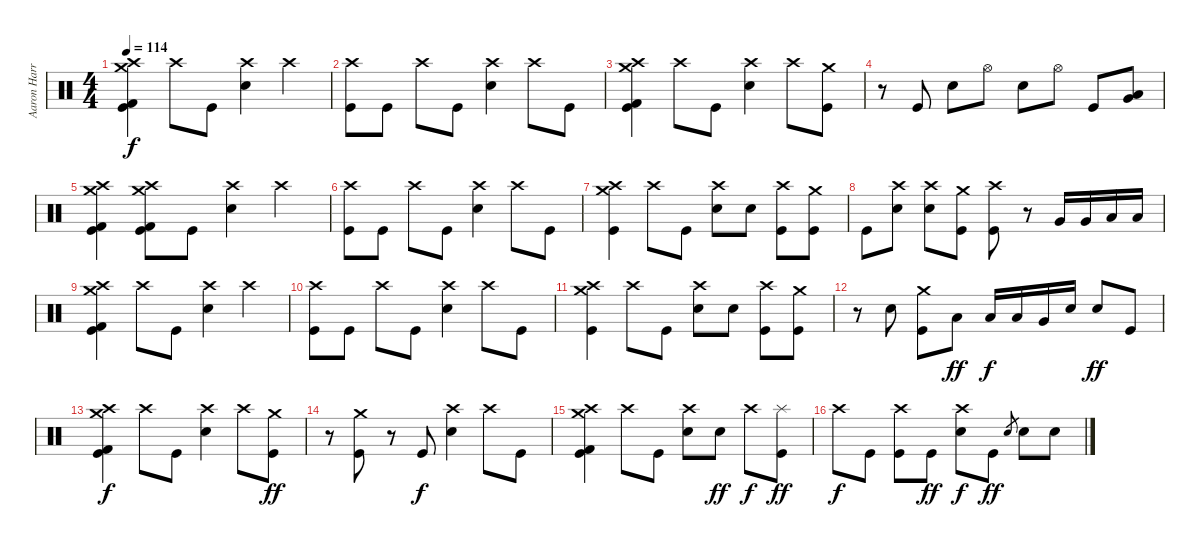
\track ("Aaron Harris" "Aaron Harr") {instrument percussion}
\staff {score}
\articulation defaults
\ts (4 4)
\tempo 114
\clef neutral
\ks c
("Crash medium (hit)" "Crash high (hit)" "Kick (hit) 2" "Kick (hit)").4{dy f} "Crash high (hit)".8 "Kick (hit)".8 ("Crash high (hit)" "Electric Snare (hit)").4 "Crash high (hit)".4 |
("Crash high (hit)" "Kick (hit)").8 "Kick (hit)".8 "Crash high (hit)".8 "Kick (hit)".8 ("Crash high (hit)" "Electric Snare (hit)").4 "Crash high (hit)".8 "Kick (hit)".8 |
("Crash medium (hit)" "Crash high (hit)" "Kick (hit) 2" "Kick (hit)").4 "Crash high (hit)".8 "Kick (hit)".8 ("Crash high (hit)" "Electric Snare (hit)").4 "Crash high (hit)".8 ("Crash medium (hit)" "Kick (hit)").8 |
r.8 "Kick (hit)".8 "Electric Snare (hit)".8 "Hi-Hat (open)".8 "Electric Snare (hit)".8 "Hi-Hat (open)".8 "Kick (hit)".8 ("Very Low Tom (hit)" "Low Floor Tom (hit)").8 |
("Crash medium (hit)" "Crash high (hit)" "Kick (hit) 2" "Kick (hit)").4 ("Crash medium (hit)" "Crash high (hit)" "Kick (hit) 2" "Kick (hit)").8 "Kick (hit)".8 ("Crash high (hit)" "Electric Snare (hit)").4 "Crash high (hit)".4 |
("Crash high (hit)" "Kick (hit)").8 "Kick (hit)".8 "Crash high (hit)".8 "Kick (hit)".8 ("Crash high (hit)" "Electric Snare (hit)").4 "Crash high (hit)".8 "Kick (hit)".8 |
("Crash medium (hit)" "Crash high (hit)" "Kick (hit)").4 "Crash high (hit)".8 "Kick (hit)".8 ("Crash high (hit)" "Electric Snare (hit)").8 "Electric Snare (hit)".8 ("Crash high (hit)" "Kick (hit)").8 ("Crash medium (hit)" "Kick (hit)").8 |
"Kick (hit)".8 ("Crash high (hit)" "Electric Snare (hit)").8 ("Crash high (hit)" "Electric Snare (hit)").8 ("Crash medium (hit)" "Kick (hit)").8 ("Crash high (hit)" "Kick (hit)").8 r.8 "Very Low Tom (hit)".16 "Very Low Tom (hit)".16 "Low Floor Tom (hit)".16 "Low Floor Tom (hit)".16 |
("Crash medium (hit)" "Crash high (hit)" "Kick (hit) 2" "Kick (hit)").4 "Crash high (hit)".8 "Kick (hit)".8 ("Crash high (hit)" "Electric Snare (hit)").4 "Crash high (hit)".4 |
("Crash high (hit)" "Kick (hit)").8 "Kick (hit)".8 "Crash high (hit)".8 "Kick (hit)".8 ("Crash high (hit)" "Electric Snare (hit)").4 "Crash high (hit)".8 "Kick (hit)".8 |
("Crash medium (hit)" "Crash high (hit)" "Kick (hit)").4 "Crash high (hit)".8 "Kick (hit)".8 ("Crash high (hit)" "Electric Snare (hit)").8 "Electric Snare (hit)".8 ("Crash high (hit)" "Kick (hit)").8 ("Crash medium (hit)" "Kick (hit)").8 |
r.8 "Electric Snare (hit)".8 ("Crash medium (hit)" "Kick (hit)").8 "Low Tom (hit)".8{dy ff} "Low Tom (hit)".16{dy f} "Low Tom (hit)".16 "Very Low Tom (hit)".16 "Electric Snare (hit)".16 "Electric Snare (hit)".8{dy ff} "Kick (hit)".8 |
("Crash medium (hit)" "Crash high (hit)" "Kick (hit) 2" "Kick (hit)").4{dy f} "Crash high (hit)".8 "Kick (hit)".8 ("Crash high (hit)" "Electric Snare (hit)").4 "Crash high (hit)".8 ("Crash medium (hit)" "Kick (hit)").8{dy ff} |
r.8 ("Crash medium (hit)" "Kick (hit)").8 r.8 "Kick (hit)".8{dy f} ("Crash high (hit)" "Electric Snare (hit)").4 "Crash high (hit)".8 "Kick (hit)".8 |
("Crash medium (hit)" "Crash high (hit)" "Kick (hit) 2" "Kick (hit)").4 "Crash high (hit)".8 "Kick (hit)".8 ("Crash high (hit)" "Electric Snare (hit)").8 "Electric Snare (hit)".8{dy ff} "Crash high (hit)".8{dy f} ("Splash (hit)" "Kick (hit)").8{dy ff} |
"Crash high (hit)".8{dy f} "Kick (hit)".8 ("Crash high (hit)" "Kick (hit)").8 "Kick (hit)".8{dy ff} ("Crash high (hit)" "Electric Snare (hit)").8{dy f} "Kick (hit)".8{dy ff} "Electric Snare (hit)".8{gr} "Electric Snare (hit)".8 "Electric Snare (hit)".8
